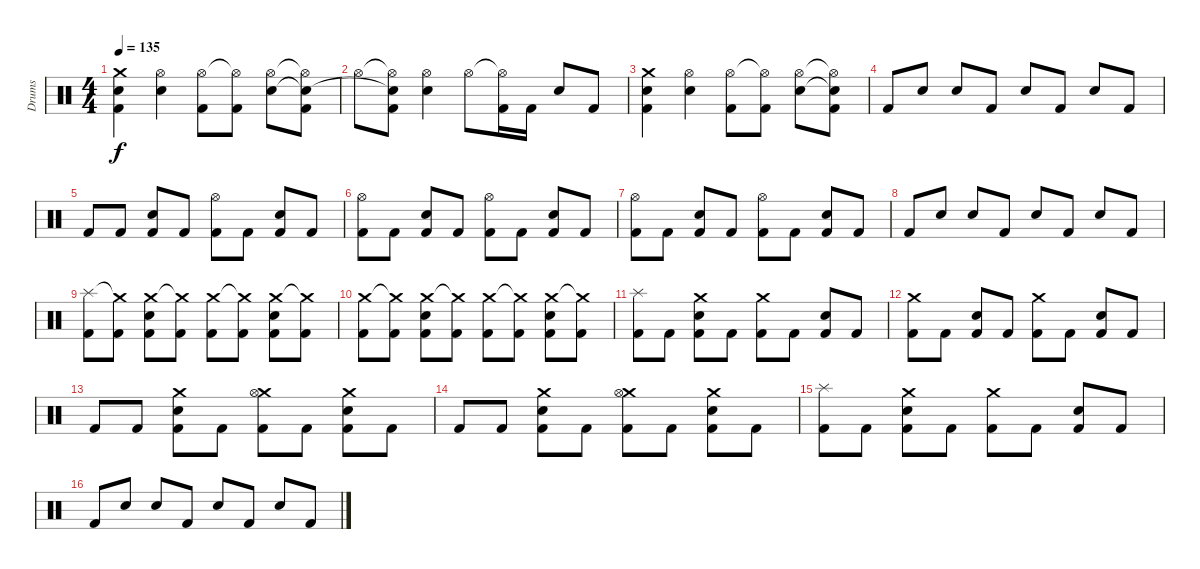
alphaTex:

\track ("Drums" "Drums") {instrument percussion}
\staff {score}
\articulation defaults
\ts (4 4)
\tempo 135
\clef neutral
\ks c
("Crash medium (hit)" "Snare (hit) 2" "Kick (hit) 2").4{dy f} ("Hi-Hat (open)" "Snare (hit) 2").4 ("Hi-Hat (open)" "Kick (hit) 2").8 ("Hi-Hat (open)"{t} "Kick (hit) 2").8 ("Hi-Hat (open)" "Snare (hit) 2").8 ("Hi-Hat (open)"{t} "Snare (hit) 2"{t} "Kick (hit) 2").8 |
"Hi-Hat (open)".8 ("Hi-Hat (open)"{t} "Snare (hit) 2"{t} "Kick (hit) 2").8 ("Hi-Hat (open)" "Snare (hit) 2").4 "Hi-Hat (open)".8 ("Hi-Hat (open)"{t} "Kick (hit) 2").16 "Kick (hit) 2".16 "Snare (hit) 2".8 "Kick (hit) 2".8 |
("Crash medium (hit)" "Snare (hit) 2" "Kick (hit) 2").4 ("Hi-Hat (open)" "Snare (hit) 2").4 ("Hi-Hat (open)" "Kick (hit) 2").8 ("Hi-Hat (open)"{t} "Kick (hit) 2").8 ("Hi-Hat (open)" "Snare (hit) 2").8 ("Hi-Hat (open)"{t} "Snare (hit) 2"{t} "Kick (hit) 2").8 |
"Kick (hit) 2".8 "Snare (hit) 2".8 "Snare (hit) 2".8 "Kick (hit) 2".8 "Snare (hit) 2".8 "Kick (hit) 2".8 "Snare (hit) 2".8 "Kick (hit) 2".8 |
"Kick (hit) 2".8 "Kick (hit) 2".8 ("Snare (hit) 2" "Kick (hit) 2").8 "Kick (hit) 2".8 ("Hi-Hat (open)" "Kick (hit) 2").8 "Kick (hit) 2".8 ("Snare (hit) 2" "Kick (hit) 2").8 "Kick (hit) 2".8 |
("Hi-Hat (open)" "Kick (hit) 2").8 "Kick (hit) 2".8 ("Snare (hit) 2" "Kick (hit) 2").8 "Kick (hit) 2".8 ("Hi-Hat (open)" "Kick (hit) 2").8 "Kick (hit) 2".8 ("Snare (hit) 2" "Kick (hit) 2").8 "Kick (hit) 2".8 |
("Hi-Hat (open)" "Kick (hit) 2").8 "Kick (hit) 2".8 ("Snare (hit) 2" "Kick (hit) 2").8 "Kick (hit) 2".8 ("Hi-Hat (open)" "Kick (hit) 2").8 "Kick (hit) 2".8 ("Snare (hit) 2" "Kick (hit) 2").8 "Kick (hit) 2".8 |
"Kick (hit) 2".8 "Snare (hit) 2".8 "Snare (hit) 2".8 "Kick (hit) 2".8 "Snare (hit) 2".8 "Kick (hit) 2".8 "Snare (hit) 2".8 "Kick (hit) 2".8 |
("Splash (hit)" "Kick (hit) 2").8 ("Crash medium (hit)"{t} "Kick (hit) 2").8 ("Crash medium (hit)" "Snare (hit) 2" "Kick (hit) 2").8 ("Crash medium (hit)"{t} "Kick (hit) 2").8 ("Crash medium (hit)" "Kick (hit) 2").8 ("Crash medium (hit)"{t} "Kick (hit) 2").8 ("Crash medium (hit)" "Snare (hit) 2" "Kick (hit) 2").8 ("Crash medium (hit)"{t} "Kick (hit) 2").8 |
("Crash medium (hit)" "Kick (hit) 2").8 ("Crash medium (hit)"{t} "Kick (hit) 2").8 ("Crash medium (hit)" "Snare (hit) 2" "Kick (hit) 2").8 ("Crash medium (hit)"{t} "Kick (hit) 2").8 ("Crash medium (hit)" "Kick (hit) 2").8 ("Crash medium (hit)"{t} "Kick (hit) 2").8 ("Crash medium (hit)" "Snare (hit) 2" "Kick (hit) 2").8 ("Crash medium (hit)"{t} "Kick (hit) 2").8 |
("Splash (hit)" "Kick (hit) 2").8 "Kick (hit) 2".8 ("Crash medium (hit)" "Snare (hit) 2" "Kick (hit) 2").8 "Kick (hit) 2".8 ("Crash medium (hit)" "Kick (hit) 2").8 "Kick (hit) 2".8 ("Snare (hit) 2" "Kick (hit) 2").8 "Kick (hit) 2".8 |
("Crash medium (hit)" "Kick (hit) 2").8 "Kick (hit) 2".8 ("Snare (hit) 2" "Kick (hit) 2").8 "Kick (hit) 2".8 ("Crash medium (hit)" "Kick (hit) 2").8 "Kick (hit) 2".8 ("Snare (hit) 2" "Kick (hit) 2").8 "Kick (hit) 2".8 |
"Kick (hit) 2".8 "Kick (hit) 2".8 ("Crash medium (hit)" "Snare (hit) 2" "Kick (hit) 2").8 "Kick (hit) 2".8 ("Crash medium (hit)" "Hi-Hat (open)" "Kick (hit) 2").8 "Kick (hit) 2".8 ("Crash medium (hit)" "Snare (hit) 2" "Kick (hit) 2").8 "Kick (hit) 2".8 |
"Kick (hit) 2".8 "Kick (hit) 2".8 ("Crash medium (hit)" "Snare (hit) 2" "Kick (hit) 2").8 "Kick (hit) 2".8 ("Crash medium (hit)" "Hi-Hat (open)" "Kick (hit) 2").8 "Kick (hit) 2".8 ("Crash medium (hit)" "Snare (hit) 2" "Kick (hit) 2").8 "Kick (hit) 2".8 |
("Splash (hit)" "Kick (hit) 2").8 "Kick (hit) 2".8 ("Crash medium (hit)" "Snare (hit) 2" "Kick (hit) 2").8 "Kick (hit) 2".8 ("Crash medium (hit)" "Kick (hit) 2").8 "Kick (hit) 2".8 ("Snare (hit) 2" "Kick (hit) 2").8 "Kick (hit) 2".8 |
"Kick (hit) 2".8 "Snare (hit) 2".8 "Snare (hit) 2".8 "Kick (hit) 2".8 "Snare (hit) 2".8 "Kick (hit) 2".8 "Snare (hit) 2".8 "Kick (hit) 2".8
